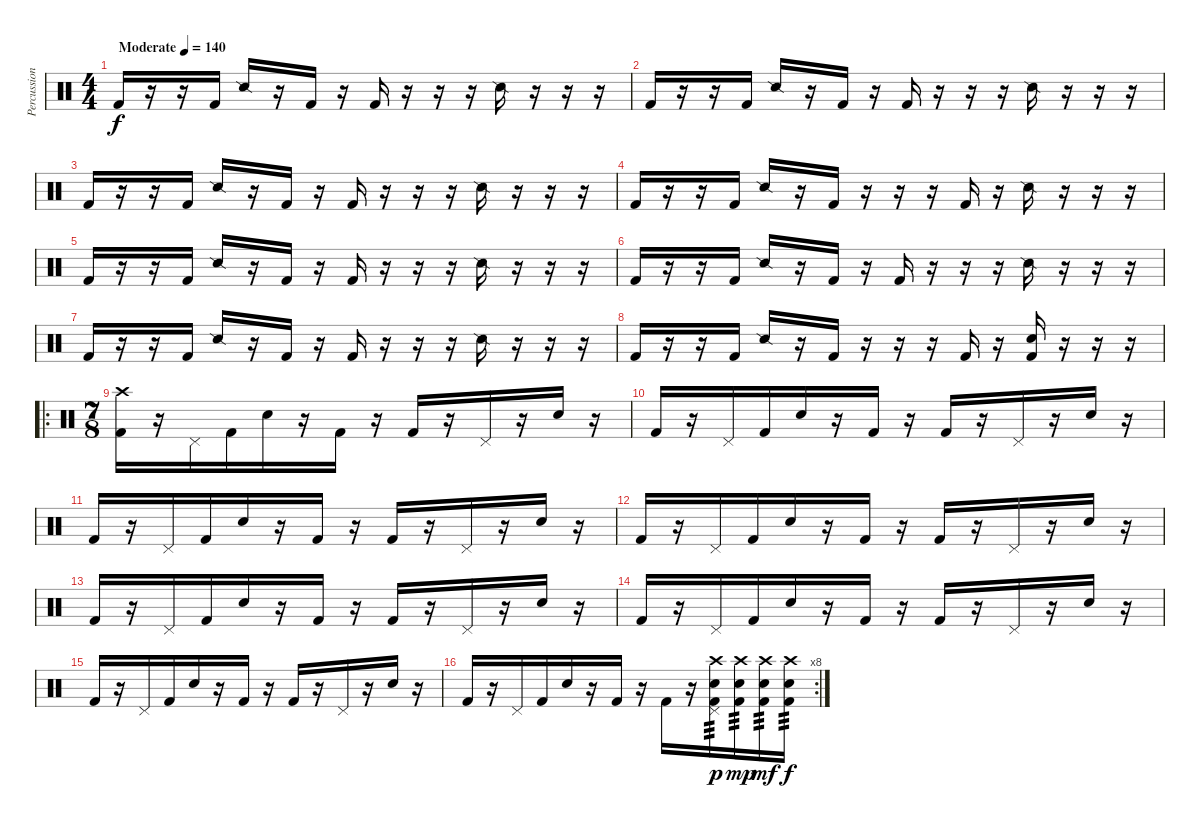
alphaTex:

\track ("Percussion" "Percussion") {instrument percussion}
\staff {score}
\articulation defaults
\ts (4 4)
\tempo (140 "Moderate")
\clef neutral
\ks c "Kick (hit) 2".16{dy f}
r.16 r.16 "Kick (hit) 2".16 "Snare (side stick) 2".16 r.16 "Kick (hit) 2".16 r.16 "Kick (hit) 2".16 r.16 r.16 r.16 "Snare (side stick) 2".16 r.16 r.16 r.16 |
"Kick (hit) 2".16 r.16 r.16 "Kick (hit) 2".16 "Snare (side stick) 2".16 r.16 "Kick (hit) 2".16 r.16 "Kick (hit) 2".16 r.16 r.16 r.16 "Snare (side stick) 2".16 r.16 r.16 r.16 |
"Kick (hit) 2".16 r.16 r.16 "Kick (hit) 2".16 "Snare (side stick) 2".16 r.16 "Kick (hit) 2".16 r.16 "Kick (hit) 2".16 r.16 r.16 r.16 "Snare (side stick) 2".16 r.16 r.16 r.16 |
"Kick (hit) 2".16 r.16 r.16 "Kick (hit) 2".16 "Snare (side stick) 2".16 r.16 "Kick (hit) 2".16 r.16 r.16 r.16 "Kick (hit) 2".16 r.16 "Snare (side stick) 2".16 r.16 r.16 r.16 |
"Kick (hit) 2".16 r.16 r.16 "Kick (hit) 2".16 "Snare (side stick) 2".16 r.16 "Kick (hit) 2".16 r.16 "Kick (hit) 2".16 r.16 r.16 r.16 "Snare (side stick) 2".16 r.16 r.16 r.16 |
"Kick (hit) 2".16 r.16 r.16 "Kick (hit) 2".16 "Snare (side stick) 2".16 r.16 "Kick (hit) 2".16 r.16 "Kick (hit) 2".16 r.16 r.16 r.16 "Snare (side stick) 2".16 r.16 r.16 r.16 |
"Kick (hit) 2".16 r.16 r.16 "Kick (hit) 2".16 "Snare (side stick) 2".16 r.16 "Kick (hit) 2".16 r.16 "Kick (hit) 2".16 r.16 r.16 r.16 "Snare (side stick) 2".16 r.16 r.16 r.16 |
"Kick (hit) 2".16 r.16 r.16 "Kick (hit) 2".16 "Snare (side stick) 2".16 r.16 "Kick (hit) 2".16 r.16 r.16 r.16 "Kick (hit) 2".16 r.16 ("Electric Snare (hit)" "Kick (hit) 2").16 r.16 r.16 r.16 |
\ro
\ts (7 8)
("Crash high (hit)" "Kick (hit) 2").16 r.16 "Pedal Hi-Hat (hit)".16 "Kick (hit) 2".16 "Electric Snare (hit)".16 r.16 "Kick (hit) 2".16 r.16 "Kick (hit) 2".16 r.16 "Pedal Hi-Hat (hit)".16 r.16 "Electric Snare (hit)".16 r.16 |
"Kick (hit) 2".16 r.16 "Pedal Hi-Hat (hit)".16 "Kick (hit) 2".16 "Electric Snare (hit)".16 r.16 "Kick (hit) 2".16 r.16 "Kick (hit) 2".16 r.16 "Pedal Hi-Hat (hit)".16 r.16 "Electric Snare (hit)".16 r.16 |
"Kick (hit) 2".16 r.16 "Pedal Hi-Hat (hit)".16 "Kick (hit) 2".16 "Electric Snare (hit)".16 r.16 "Kick (hit) 2".16 r.16 "Kick (hit) 2".16 r.16 "Pedal Hi-Hat (hit)".16 r.16 "Electric Snare (hit)".16 r.16 |
"Kick (hit) 2".16 r.16 "Pedal Hi-Hat (hit)".16 "Kick (hit) 2".16 "Electric Snare (hit)".16 r.16 "Kick (hit) 2".16 r.16 "Kick (hit) 2".16 r.16 "Pedal Hi-Hat (hit)".16 r.16 "Electric Snare (hit)".16 r.16 |
"Kick (hit) 2".16 r.16 "Pedal Hi-Hat (hit)".16 "Kick (hit) 2".16 "Electric Snare (hit)".16 r.16 "Kick (hit) 2".16 r.16 "Kick (hit) 2".16 r.16 "Pedal Hi-Hat (hit)".16 r.16 "Electric Snare (hit)".16 r.16 |
"Kick (hit) 2".16 r.16 "Pedal Hi-Hat (hit)".16 "Kick (hit) 2".16 "Electric Snare (hit)".16 r.16 "Kick (hit) 2".16 r.16 "Kick (hit) 2".16 r.16 "Pedal Hi-Hat (hit)".16 r.16 "Electric Snare (hit)".16 r.16 |
"Kick (hit) 2".16 r.16 "Pedal Hi-Hat (hit)".16 "Kick (hit) 2".16 "Electric Snare (hit)".16 r.16 "Kick (hit) 2".16 r.16 "Kick (hit) 2".16 r.16 "Pedal Hi-Hat (hit)".16 r.16 "Electric Snare (hit)".16 r.16 |
\rc 8 "Kick (hit) 2".16
r.16 "Pedal Hi-Hat (hit)".16 "Kick (hit) 2".16 "Electric Snare (hit)".16 r.16 "Kick (hit) 2".16 r.16 "Kick (hit) 2".16 r.16 ("Crash high (hit)" "Electric Snare (hit)" "Pedal Hi-Hat (hit)" "Kick (hit) 2").16{tp 3 dy p} ("Crash high (hit)" "Electric Snare (hit)" "Kick (hit) 2").16{tp 3 dy mp} ("Crash high (hit)" "Electric Snare (hit)" "Kick (hit) 2").16{tp 3 dy mf} ("Crash high (hit)" "Electric Snare (hit)" "Kick (hit) 2").16{tp 3 dy f}
